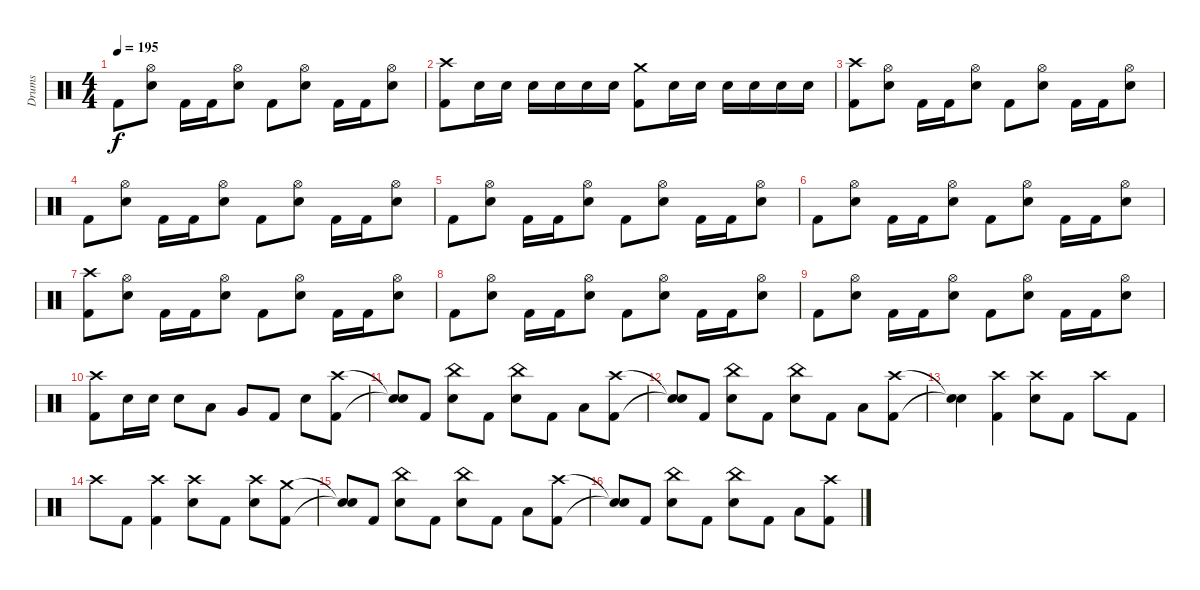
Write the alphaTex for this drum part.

\track ("Drums" "Drums") {instrument percussion}
\staff {score}
\articulation defaults
\ts (4 4)
\tempo 195
\clef neutral
\ks c "Kick (hit) 2".8{dy f}
("Hi-Hat (open)" "Electric Snare (hit)").8 "Kick (hit) 2".16 "Kick (hit) 2".16 ("Hi-Hat (open)" "Electric Snare (hit)").8 "Kick (hit) 2".8 ("Hi-Hat (open)" "Electric Snare (hit)").8 "Kick (hit) 2".16 "Kick (hit) 2".16 ("Hi-Hat (open)" "Electric Snare (hit)").8 |
("Crash high (hit)" "Kick (hit) 2").8 "Electric Snare (hit)".16 "Electric Snare (hit)".16 "Electric Snare (hit)".16 "Electric Snare (hit)".16 "Electric Snare (hit)".16 "Electric Snare (hit)".16 ("Crash medium (hit)" "Kick (hit) 2").8 "Electric Snare (hit)".16 "Electric Snare (hit)".16 "Electric Snare (hit)".16 "Electric Snare (hit)".16 "Electric Snare (hit)".16 "Electric Snare (hit)".16 |
("Crash high (hit)" "Kick (hit) 2").8 ("Hi-Hat (open)" "Electric Snare (hit)").8 "Kick (hit) 2".16 "Kick (hit) 2".16 ("Hi-Hat (open)" "Electric Snare (hit)").8 "Kick (hit) 2".8 ("Hi-Hat (open)" "Electric Snare (hit)").8 "Kick (hit) 2".16 "Kick (hit) 2".16 ("Hi-Hat (open)" "Electric Snare (hit)").8 |
"Kick (hit) 2".8 ("Hi-Hat (open)" "Electric Snare (hit)").8 "Kick (hit) 2".16 "Kick (hit) 2".16 ("Hi-Hat (open)" "Electric Snare (hit)").8 "Kick (hit) 2".8 ("Hi-Hat (open)" "Electric Snare (hit)").8 "Kick (hit) 2".16 "Kick (hit) 2".16 ("Hi-Hat (open)" "Electric Snare (hit)").8 |
"Kick (hit) 2".8 ("Hi-Hat (open)" "Electric Snare (hit)").8 "Kick (hit) 2".16 "Kick (hit) 2".16 ("Hi-Hat (open)" "Electric Snare (hit)").8 "Kick (hit) 2".8 ("Hi-Hat (open)" "Electric Snare (hit)").8 "Kick (hit) 2".16 "Kick (hit) 2".16 ("Hi-Hat (open)" "Electric Snare (hit)").8 |
"Kick (hit) 2".8 ("Hi-Hat (open)" "Electric Snare (hit)").8 "Kick (hit) 2".16 "Kick (hit) 2".16 ("Hi-Hat (open)" "Electric Snare (hit)").8 "Kick (hit) 2".8 ("Hi-Hat (open)" "Electric Snare (hit)").8 "Kick (hit) 2".16 "Kick (hit) 2".16 ("Hi-Hat (open)" "Electric Snare (hit)").8 |
("Crash high (hit)" "Kick (hit) 2").8 ("Hi-Hat (open)" "Electric Snare (hit)").8 "Kick (hit) 2".16 "Kick (hit) 2".16 ("Hi-Hat (open)" "Electric Snare (hit)").8 "Kick (hit) 2".8 ("Hi-Hat (open)" "Electric Snare (hit)").8 "Kick (hit) 2".16 "Kick (hit) 2".16 ("Hi-Hat (open)" "Electric Snare (hit)").8 |
"Kick (hit) 2".8 ("Hi-Hat (open)" "Electric Snare (hit)").8 "Kick (hit) 2".16 "Kick (hit) 2".16 ("Hi-Hat (open)" "Electric Snare (hit)").8 "Kick (hit) 2".8 ("Hi-Hat (open)" "Electric Snare (hit)").8 "Kick (hit) 2".16 "Kick (hit) 2".16 ("Hi-Hat (open)" "Electric Snare (hit)").8 |
"Kick (hit) 2".8 ("Hi-Hat (open)" "Electric Snare (hit)").8 "Kick (hit) 2".16 "Kick (hit) 2".16 ("Hi-Hat (open)" "Electric Snare (hit)").8 "Kick (hit) 2".8 ("Hi-Hat (open)" "Electric Snare (hit)").8 "Kick (hit) 2".16 "Kick (hit) 2".16 ("Hi-Hat (open)" "Electric Snare (hit)").8 |
("Crash high (hit)" "Kick (hit) 2").8 "Electric Snare (hit)".16 "Electric Snare (hit)".16 "Electric Snare (hit)".8 "Low Tom (hit)".8 "Very Low Tom (hit)".8 "Kick (hit) 2".8 "Electric Snare (hit)".8 ("Crash high (hit)" "Kick (hit) 2").8 |
("Snare (hit)"{t} "Snare (hit)"{t}).8 "Kick (hit) 2".8 ("China (hit)" "Electric Snare (hit)").8 "Kick (hit) 2".8 ("China (hit)" "Electric Snare (hit)").8 "Kick (hit) 2".8 "Low Tom (hit)".8 ("Crash high (hit)" "Kick (hit) 2").8 |
("Snare (hit)"{t} "Snare (hit)"{t}).8 "Kick (hit) 2".8 ("China (hit)" "Electric Snare (hit)").8 "Kick (hit) 2".8 ("China (hit)" "Electric Snare (hit)").8 "Kick (hit) 2".8 "Low Tom (hit)".8 ("Crash high (hit)" "Kick (hit) 2").8 |
("Snare (hit)"{t} "Snare (hit)"{t}).4 ("Crash high (hit)" "Kick (hit) 2").4 ("Crash high (hit)" "Electric Snare (hit)").8 "Kick (hit) 2".8 "Crash high (hit)".8 "Kick (hit) 2".8 |
"Crash high (hit)".8 "Kick (hit) 2".8 ("Crash high (hit)" "Kick (hit) 2").4 ("Crash high (hit)" "Electric Snare (hit)").8 "Kick (hit) 2".8 ("Crash high (hit)" "Electric Snare (hit)").8 ("Crash medium (hit)" "Kick (hit) 2").8 |
("Snare (hit)"{t} "Snare (hit)"{t}).8 "Kick (hit) 2".8 ("China (hit)" "Electric Snare (hit)").8 "Kick (hit) 2".8 ("China (hit)" "Electric Snare (hit)").8 "Kick (hit) 2".8 "Low Tom (hit)".8 ("Crash high (hit)" "Kick (hit) 2").8 |
("Snare (hit)"{t} "Snare (hit)"{t}).8 "Kick (hit) 2".8 ("China (hit)" "Electric Snare (hit)").8 "Kick (hit) 2".8 ("China (hit)" "Electric Snare (hit)").8 "Kick (hit) 2".8 "Low Tom (hit)".8 ("Crash high (hit)" "Kick (hit) 2").8
